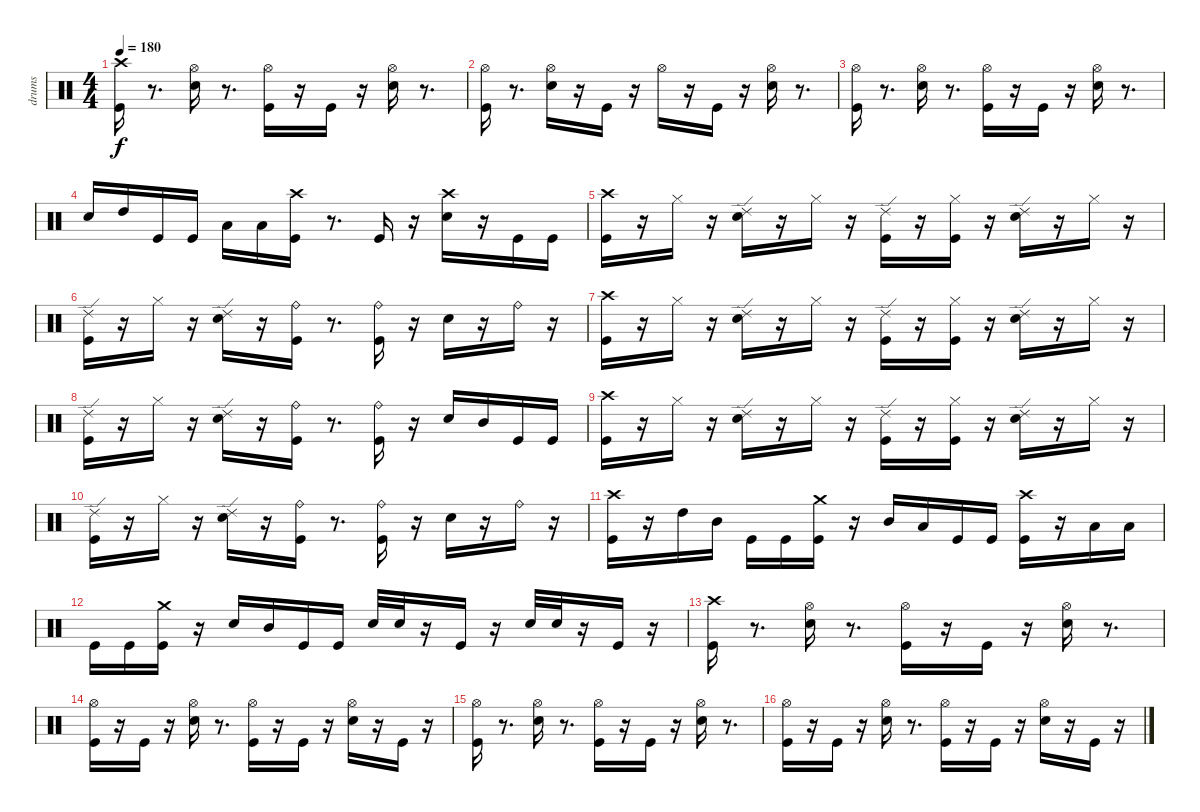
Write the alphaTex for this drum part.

\track ("drums" "drums") {instrument percussion}
\staff {score}
\articulation defaults
\ts (4 4)
\tempo 180
\clef neutral
\ks c
("Crash high (hit)" "Kick (hit)").16{dy f} r.8{d} ("Hi-Hat (open)" "Snare (hit) 2").16 r.8{d} ("Hi-Hat (open)" "Kick (hit)").16 r.16 "Kick (hit)".16 r.16 ("Hi-Hat (open)" "Snare (hit) 2").16 r.8{d} |
("Hi-Hat (open)" "Kick (hit)").16 r.8{d} ("Hi-Hat (open)" "Snare (hit) 2").16 r.16 "Kick (hit)".16 r.16 "Hi-Hat (open)".16 r.16 "Kick (hit)".16 r.16 ("Hi-Hat (open)" "Snare (hit) 2").16 r.8{d} |
("Hi-Hat (open)" "Kick (hit)").16 r.8{d} ("Hi-Hat (open)" "Snare (hit) 2").16 r.8{d} ("Hi-Hat (open)" "Kick (hit)").16 r.16 "Kick (hit)".16 r.16 ("Hi-Hat (open)" "Snare (hit) 2").16 r.8{d} |
"Snare (hit) 2".16 "High Tom (hit)".16 "Kick (hit)".16 "Kick (hit)".16 "Low Tom (hit)".16 "Low Tom (hit)".16 ("Crash high (hit)" "Kick (hit)").16 r.8{d} "Kick (hit)".16 r.16 ("Crash high (hit)" "Snare (hit) 2").16 r.16 "Kick (hit)".16 "Kick (hit)".16 |
("Crash high (hit)" "Kick (hit)").16 r.16 "Hi-Hat (closed)".16 r.16 ("Ride (edge) 2" "Snare (hit) 2").16 r.16 "Hi-Hat (closed)".16 r.16 ("Ride (edge) 2" "Kick (hit)").16 r.16 ("Hi-Hat (closed)" "Kick (hit)").16 r.16 ("Ride (edge) 2" "Snare (hit) 2").16 r.16 "Hi-Hat (closed)".16 r.16 |
("Ride (edge) 2" "Kick (hit)").16 r.16 "Hi-Hat (closed)".16 r.16 ("Ride (edge) 2" "Snare (hit) 2").16 r.16 ("Ride (bell)" "Kick (hit)").16 r.8{d} ("Ride (bell)" "Kick (hit)").16 r.16 "Snare (hit) 2".16 r.16 "Ride (bell)".16 r.16 |
("Kick (hit)" "Crash high (hit)").16 r.16 "Hi-Hat (closed)".16 r.16 ("Ride (edge) 2" "Snare (hit) 2").16 r.16 "Hi-Hat (closed)".16 r.16 ("Ride (edge) 2" "Kick (hit)").16 r.16 ("Hi-Hat (closed)" "Kick (hit)").16 r.16 ("Ride (edge) 2" "Snare (hit) 2").16 r.16 "Hi-Hat (closed)".16 r.16 |
("Ride (edge) 2" "Kick (hit)").16 r.16 "Hi-Hat (closed)".16 r.16 ("Ride (edge) 2" "Snare (hit) 2").16 r.16 ("Ride (bell)" "Kick (hit)").16 r.8{d} ("Ride (bell)" "Kick (hit)").16 r.16 "Snare (hit) 2".16 "Mid Tom (hit)".16 "Kick (hit)".16 "Kick (hit)".16 |
("Crash high (hit)" "Kick (hit)").16 r.16 "Hi-Hat (closed)".16 r.16 ("Ride (edge) 2" "Snare (hit) 2").16 r.16 "Hi-Hat (closed)".16 r.16 ("Ride (edge) 2" "Kick (hit)").16 r.16 ("Hi-Hat (closed)" "Kick (hit)").16 r.16 ("Ride (edge) 2" "Snare (hit) 2").16 r.16 "Hi-Hat (closed)".16 r.16 |
("Ride (edge) 2" "Kick (hit)").16 r.16 "Hi-Hat (closed)".16 r.16 ("Ride (edge) 2" "Snare (hit) 2").16 r.16 ("Ride (bell)" "Kick (hit)").16 r.8{d} ("Ride (bell)" "Kick (hit)").16 r.16 "Snare (hit) 2".16 r.16 "Ride (bell)".16 r.16 |
("Crash high (hit)" "Kick (hit)").16 r.16 "High Tom (hit)".16 "Mid Tom (hit)".16 "Kick (hit)".16 "Kick (hit)".16 ("Kick (hit)" "Crash medium (hit)").16 r.16 "Mid Tom (hit)".16 "Low Tom (hit)".16 "Kick (hit)".16 "Kick (hit)".16 ("Kick (hit)" "Crash high (hit)").16 r.16 "Low Tom (hit)".16 "Low Tom (hit)".16 |
"Kick (hit)".16 "Kick (hit)".16 ("Kick (hit)" "Crash medium (hit)").16 r.16 "Snare (hit) 2".16 "Mid Tom (hit)".16 "Kick (hit)".16 "Kick (hit)".16 "Snare (hit) 2".32 "Snare (hit) 2".32 r.16 "Kick (hit)".16 r.16 "Snare (hit) 2".32 "Snare (hit) 2".32 r.16 "Kick (hit)".16 r.16 |
("Crash high (hit)" "Kick (hit)").16 r.8{d} ("Hi-Hat (open)" "Snare (hit) 2").16 r.8{d} ("Hi-Hat (open)" "Kick (hit)").16 r.16 "Kick (hit)".16 r.16 ("Hi-Hat (open)" "Snare (hit) 2").16 r.8{d} |
("Hi-Hat (open)" "Kick (hit)").16 r.16 "Kick (hit)".16 r.16 ("Hi-Hat (open)" "Snare (hit) 2").16 r.8{d} ("Hi-Hat (open)" "Kick (hit)").16 r.16 "Kick (hit)".16 r.16 ("Hi-Hat (open)" "Snare (hit) 2").16 r.16 "Kick (hit)".16 r.16 |
("Hi-Hat (open)" "Kick (hit)").16 r.8{d} ("Hi-Hat (open)" "Snare (hit) 2").16 r.8{d} ("Hi-Hat (open)" "Kick (hit)").16 r.16 "Kick (hit)".16 r.16 ("Hi-Hat (open)" "Snare (hit) 2").16 r.8{d} |
("Hi-Hat (open)" "Kick (hit)").16 r.16 "Kick (hit)".16 r.16 ("Hi-Hat (open)" "Snare (hit) 2").16 r.8{d} ("Hi-Hat (open)" "Kick (hit)").16 r.16 "Kick (hit)".16 r.16 ("Hi-Hat (open)" "Snare (hit) 2").16 r.16 "Kick (hit)".16 r.16
